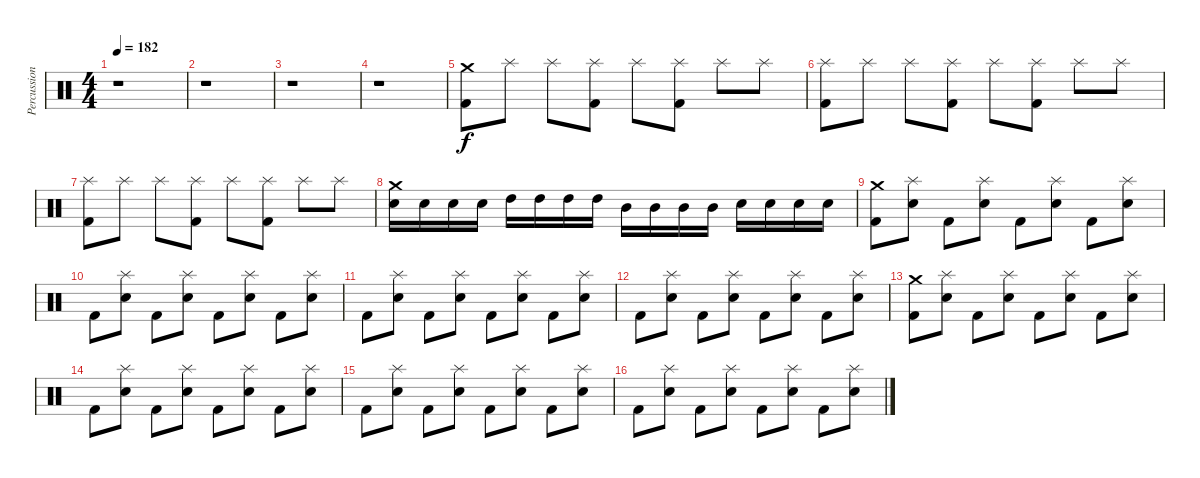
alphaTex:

\track ("Percussion" "Percussion") {instrument percussion}
\staff {score}
\articulation defaults
\ts (4 4)
\tempo 182
\clef neutral
\ks c
r.1{dy f} |
r.1 |
r.1 |
r.1 |
("Crash medium (hit)" "Kick (hit) 2").8 "Splash (hit)".8 "Splash (hit)".8 ("Splash (hit)" "Kick (hit) 2").8 "Splash (hit)".8 ("Splash (hit)" "Kick (hit) 2").8 "Splash (hit)".8 "Splash (hit)".8 |
("Splash (hit)" "Kick (hit) 2").8 "Splash (hit)".8 "Splash (hit)".8 ("Splash (hit)" "Kick (hit) 2").8 "Splash (hit)".8 ("Splash (hit)" "Kick (hit) 2").8 "Splash (hit)".8 "Splash (hit)".8 |
("Splash (hit)" "Kick (hit) 2").8 "Splash (hit)".8 "Splash (hit)".8 ("Splash (hit)" "Kick (hit) 2").8 "Splash (hit)".8 ("Splash (hit)" "Kick (hit) 2").8 "Splash (hit)".8 "Splash (hit)".8 |
("Crash medium (hit)" "Electric Snare (hit)").16 "Electric Snare (hit)".16 "Electric Snare (hit)".16 "Electric Snare (hit)".16 "High Tom (hit)".16 "High Tom (hit)".16 "High Tom (hit)".16 "High Tom (hit)".16 "Mid Tom (hit)".16 "Mid Tom (hit)".16 "Mid Tom (hit)".16 "Mid Tom (hit)".16 "Electric Snare (hit)".16 "Electric Snare (hit)".16 "Electric Snare (hit)".16 "Electric Snare (hit)".16 |
("Crash medium (hit)" "Kick (hit) 2").8 ("Splash (hit)" "Electric Snare (hit)").8 "Kick (hit) 2".8 ("Splash (hit)" "Electric Snare (hit)").8 "Kick (hit) 2".8 ("Splash (hit)" "Electric Snare (hit)").8 "Kick (hit) 2".8 ("Splash (hit)" "Electric Snare (hit)").8 |
"Kick (hit) 2".8 ("Splash (hit)" "Electric Snare (hit)").8 "Kick (hit) 2".8 ("Splash (hit)" "Electric Snare (hit)").8 "Kick (hit) 2".8 ("Splash (hit)" "Electric Snare (hit)").8 "Kick (hit) 2".8 ("Splash (hit)" "Electric Snare (hit)").8 |
"Kick (hit) 2".8 ("Splash (hit)" "Electric Snare (hit)").8 "Kick (hit) 2".8 ("Splash (hit)" "Electric Snare (hit)").8 "Kick (hit) 2".8 ("Splash (hit)" "Electric Snare (hit)").8 "Kick (hit) 2".8 ("Splash (hit)" "Electric Snare (hit)").8 |
"Kick (hit) 2".8 ("Splash (hit)" "Electric Snare (hit)").8 "Kick (hit) 2".8 ("Splash (hit)" "Electric Snare (hit)").8 "Kick (hit) 2".8 ("Splash (hit)" "Electric Snare (hit)").8 "Kick (hit) 2".8 ("Splash (hit)" "Electric Snare (hit)").8 |
("Crash medium (hit)" "Kick (hit) 2").8 ("Splash (hit)" "Electric Snare (hit)").8 "Kick (hit) 2".8 ("Splash (hit)" "Electric Snare (hit)").8 "Kick (hit) 2".8 ("Splash (hit)" "Electric Snare (hit)").8 "Kick (hit) 2".8 ("Splash (hit)" "Electric Snare (hit)").8 |
"Kick (hit) 2".8 ("Splash (hit)" "Electric Snare (hit)").8 "Kick (hit) 2".8 ("Splash (hit)" "Electric Snare (hit)").8 "Kick (hit) 2".8 ("Splash (hit)" "Electric Snare (hit)").8 "Kick (hit) 2".8 ("Splash (hit)" "Electric Snare (hit)").8 |
"Kick (hit) 2".8 ("Splash (hit)" "Electric Snare (hit)").8 "Kick (hit) 2".8 ("Splash (hit)" "Electric Snare (hit)").8 "Kick (hit) 2".8 ("Splash (hit)" "Electric Snare (hit)").8 "Kick (hit) 2".8 ("Splash (hit)" "Electric Snare (hit)").8 |
"Kick (hit) 2".8 ("Splash (hit)" "Electric Snare (hit)").8 "Kick (hit) 2".8 ("Splash (hit)" "Electric Snare (hit)").8 "Kick (hit) 2".8 ("Splash (hit)" "Electric Snare (hit)").8 "Kick (hit) 2".8 ("Splash (hit)" "Electric Snare (hit)").8
